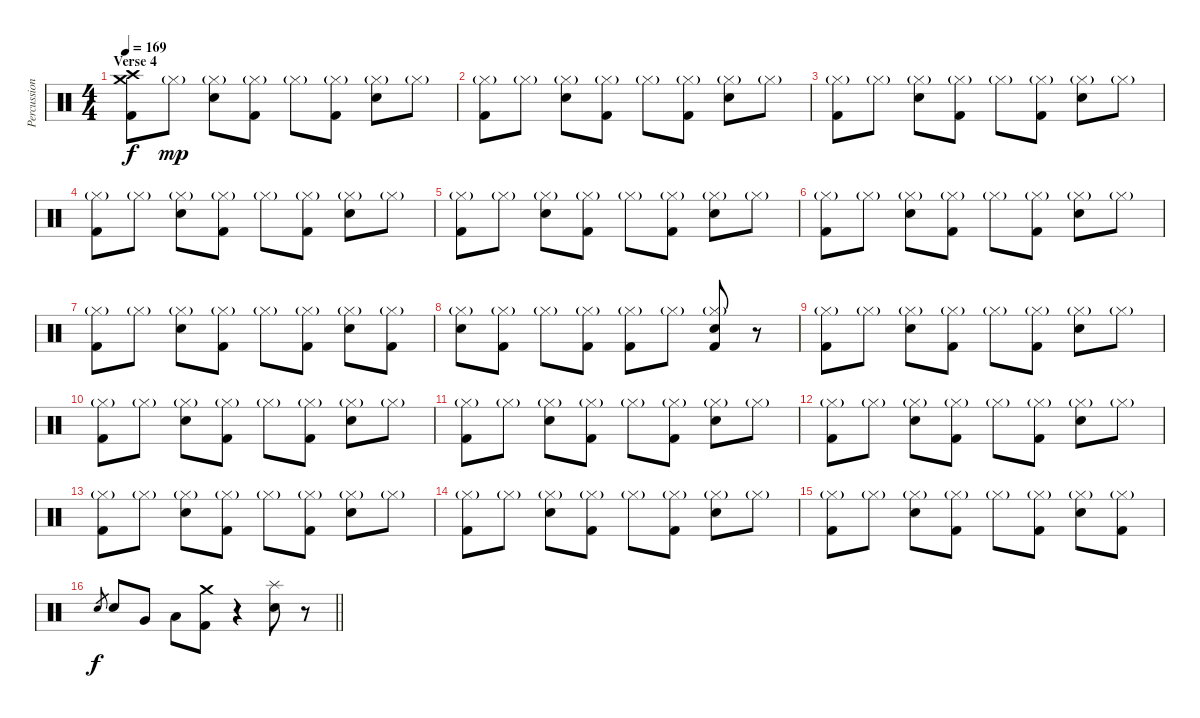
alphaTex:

\track ("Percussion" "Percussion") {instrument percussion}
\staff {score}
\articulation defaults
\ts (4 4)
\section ("" "Verse 4")
\tempo 169
\clef neutral
\ks c
("Crash high (hit)" "Crash medium (hit)" "Kick (hit) 2").8{dy f} "Hi-Hat (closed)"{g}.8{dy mp} ("Hi-Hat (closed)"{g} "Snare (hit) 2").8 ("Hi-Hat (closed)"{g} "Kick (hit) 2").8 "Hi-Hat (closed)"{g}.8 ("Hi-Hat (closed)"{g} "Kick (hit) 2").8 ("Hi-Hat (closed)"{g} "Snare (hit) 2").8 "Hi-Hat (closed)"{g}.8 |
("Hi-Hat (closed)"{g} "Kick (hit) 2").8 "Hi-Hat (closed)"{g}.8 ("Hi-Hat (closed)"{g} "Snare (hit) 2").8 ("Hi-Hat (closed)"{g} "Kick (hit) 2").8 "Hi-Hat (closed)"{g}.8 ("Hi-Hat (closed)"{g} "Kick (hit) 2").8 ("Hi-Hat (closed)"{g} "Snare (hit) 2").8 "Hi-Hat (closed)"{g}.8 |
("Hi-Hat (closed)"{g} "Kick (hit) 2").8 "Hi-Hat (closed)"{g}.8 ("Hi-Hat (closed)"{g} "Snare (hit) 2").8 ("Hi-Hat (closed)"{g} "Kick (hit) 2").8 "Hi-Hat (closed)"{g}.8 ("Hi-Hat (closed)"{g} "Kick (hit) 2").8 ("Hi-Hat (closed)"{g} "Snare (hit) 2").8 "Hi-Hat (closed)"{g}.8 |
("Hi-Hat (closed)"{g} "Kick (hit) 2").8 "Hi-Hat (closed)"{g}.8 ("Hi-Hat (closed)"{g} "Snare (hit) 2").8 ("Hi-Hat (closed)"{g} "Kick (hit) 2").8 "Hi-Hat (closed)"{g}.8 ("Hi-Hat (closed)"{g} "Kick (hit) 2").8 ("Hi-Hat (closed)"{g} "Snare (hit) 2").8 "Hi-Hat (closed)"{g}.8 |
("Hi-Hat (closed)"{g} "Kick (hit) 2").8 "Hi-Hat (closed)"{g}.8 ("Hi-Hat (closed)"{g} "Snare (hit) 2").8 ("Hi-Hat (closed)"{g} "Kick (hit) 2").8 "Hi-Hat (closed)"{g}.8 ("Hi-Hat (closed)"{g} "Kick (hit) 2").8 ("Hi-Hat (closed)"{g} "Snare (hit) 2").8 "Hi-Hat (closed)"{g}.8 |
("Hi-Hat (closed)"{g} "Kick (hit) 2").8 "Hi-Hat (closed)"{g}.8 ("Hi-Hat (closed)"{g} "Snare (hit) 2").8 ("Hi-Hat (closed)"{g} "Kick (hit) 2").8 "Hi-Hat (closed)"{g}.8 ("Hi-Hat (closed)"{g} "Kick (hit) 2").8 ("Hi-Hat (closed)"{g} "Snare (hit) 2").8 "Hi-Hat (closed)"{g}.8 |
("Hi-Hat (closed)"{g} "Kick (hit) 2").8 "Hi-Hat (closed)"{g}.8 ("Hi-Hat (closed)"{g} "Snare (hit) 2").8 ("Hi-Hat (closed)"{g} "Kick (hit) 2").8 "Hi-Hat (closed)"{g}.8 ("Hi-Hat (closed)"{g} "Kick (hit) 2").8 ("Hi-Hat (closed)"{g} "Snare (hit) 2").8 ("Hi-Hat (closed)"{g} "Kick (hit) 2").8 |
("Hi-Hat (closed)"{g} "Snare (hit) 2").8 ("Hi-Hat (closed)"{g} "Kick (hit) 2").8 "Hi-Hat (closed)"{g}.8 ("Hi-Hat (closed)"{g} "Kick (hit) 2").8 ("Hi-Hat (closed)"{g} "Kick (hit) 2").8 "Hi-Hat (closed)"{g}.8 ("Hi-Hat (closed)"{g} "Snare (hit) 2" "Kick (hit) 2").8 r.8 |
("Hi-Hat (closed)"{g} "Kick (hit) 2").8 "Hi-Hat (closed)"{g}.8 ("Hi-Hat (closed)"{g} "Snare (hit) 2").8 ("Hi-Hat (closed)"{g} "Kick (hit) 2").8 "Hi-Hat (closed)"{g}.8 ("Hi-Hat (closed)"{g} "Kick (hit) 2").8 ("Hi-Hat (closed)"{g} "Snare (hit) 2").8 "Hi-Hat (closed)"{g}.8 |
("Hi-Hat (closed)"{g} "Kick (hit) 2").8 "Hi-Hat (closed)"{g}.8 ("Hi-Hat (closed)"{g} "Snare (hit) 2").8 ("Hi-Hat (closed)"{g} "Kick (hit) 2").8 "Hi-Hat (closed)"{g}.8 ("Hi-Hat (closed)"{g} "Kick (hit) 2").8 ("Hi-Hat (closed)"{g} "Snare (hit) 2").8 "Hi-Hat (closed)"{g}.8 |
("Hi-Hat (closed)"{g} "Kick (hit) 2").8 "Hi-Hat (closed)"{g}.8 ("Hi-Hat (closed)"{g} "Snare (hit) 2").8 ("Hi-Hat (closed)"{g} "Kick (hit) 2").8 "Hi-Hat (closed)"{g}.8 ("Hi-Hat (closed)"{g} "Kick (hit) 2").8 ("Hi-Hat (closed)"{g} "Snare (hit) 2").8 "Hi-Hat (closed)"{g}.8 |
("Hi-Hat (closed)"{g} "Kick (hit) 2").8 "Hi-Hat (closed)"{g}.8 ("Hi-Hat (closed)"{g} "Snare (hit) 2").8 ("Hi-Hat (closed)"{g} "Kick (hit) 2").8 "Hi-Hat (closed)"{g}.8 ("Hi-Hat (closed)"{g} "Kick (hit) 2").8 ("Hi-Hat (closed)"{g} "Snare (hit) 2").8 "Hi-Hat (closed)"{g}.8 |
("Hi-Hat (closed)"{g} "Kick (hit) 2").8 "Hi-Hat (closed)"{g}.8 ("Hi-Hat (closed)"{g} "Snare (hit) 2").8 ("Hi-Hat (closed)"{g} "Kick (hit) 2").8 "Hi-Hat (closed)"{g}.8 ("Hi-Hat (closed)"{g} "Kick (hit) 2").8 ("Hi-Hat (closed)"{g} "Snare (hit) 2").8 "Hi-Hat (closed)"{g}.8 |
("Hi-Hat (closed)"{g} "Kick (hit) 2").8 "Hi-Hat (closed)"{g}.8 ("Hi-Hat (closed)"{g} "Snare (hit) 2").8 ("Hi-Hat (closed)"{g} "Kick (hit) 2").8 "Hi-Hat (closed)"{g}.8 ("Hi-Hat (closed)"{g} "Kick (hit) 2").8 ("Hi-Hat (closed)"{g} "Snare (hit) 2").8 "Hi-Hat (closed)"{g}.8 |
("Hi-Hat (closed)"{g} "Kick (hit) 2").8 "Hi-Hat (closed)"{g}.8 ("Hi-Hat (closed)"{g} "Snare (hit) 2").8 ("Hi-Hat (closed)"{g} "Kick (hit) 2").8 "Hi-Hat (closed)"{g}.8 ("Hi-Hat (closed)"{g} "Kick (hit) 2").8 ("Hi-Hat (closed)"{g} "Snare (hit) 2").8 ("Hi-Hat (closed)"{g} "Kick (hit) 2").8 |
\barLineRight lightlight "Snare (hit) 2".8{gr dy f} "Snare (hit) 2".8 "Very Low Tom (hit)".8 "Low Tom (hit)".8
("Crash medium (hit)" "Kick (hit) 2").8 r.4 ("Snare (hit) 2" "Splash (hit)").8 r.8
